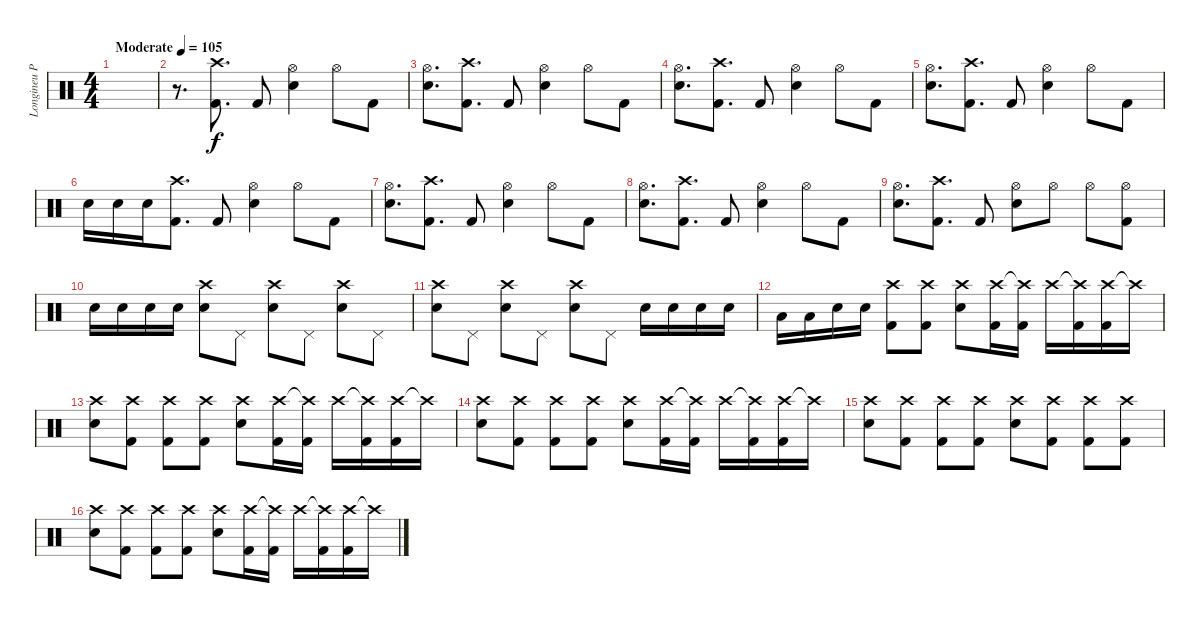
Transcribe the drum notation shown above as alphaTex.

\track ("Longineu Parsons III" "Longineu P") {instrument percussion}
\staff {score}
\articulation defaults
\ts (4 4)
\tempo (105 "Moderate")
\clef neutral
\ks c
|
r.8{d} ("Crash high (hit)" "Kick (hit) 2").8{d} "Kick (hit) 2".8 ("Hi-Hat (open)" "Electric Snare (hit)").4 "Hi-Hat (open)".8 "Kick (hit) 2".8 |
("Hi-Hat (open)" "Electric Snare (hit)").8{d} ("Crash high (hit)" "Kick (hit) 2").8{d} "Kick (hit) 2".8 ("Hi-Hat (open)" "Electric Snare (hit)").4 "Hi-Hat (open)".8 "Kick (hit) 2".8 |
("Hi-Hat (open)" "Electric Snare (hit)").8{d} ("Crash high (hit)" "Kick (hit) 2").8{d} "Kick (hit) 2".8 ("Hi-Hat (open)" "Electric Snare (hit)").4 "Hi-Hat (open)".8 "Kick (hit) 2".8 |
("Hi-Hat (open)" "Electric Snare (hit)").8{d} ("Crash high (hit)" "Kick (hit) 2").8{d} "Kick (hit) 2".8 ("Hi-Hat (open)" "Electric Snare (hit)").4 "Hi-Hat (open)".8 "Kick (hit) 2".8 |
"Electric Snare (hit)".16 "Electric Snare (hit)".16 "Electric Snare (hit)".16 ("Crash high (hit)" "Kick (hit) 2").8{d} "Kick (hit) 2".8 ("Hi-Hat (open)" "Electric Snare (hit)").4 "Hi-Hat (open)".8 "Kick (hit) 2".8 |
("Hi-Hat (open)" "Electric Snare (hit)").8{d} ("Crash high (hit)" "Kick (hit) 2").8{d} "Kick (hit) 2".8 ("Hi-Hat (open)" "Electric Snare (hit)").4 "Hi-Hat (open)".8 "Kick (hit) 2".8 |
("Hi-Hat (open)" "Electric Snare (hit)").8{d} ("Crash high (hit)" "Kick (hit) 2").8{d} "Kick (hit) 2".8 ("Hi-Hat (open)" "Electric Snare (hit)").4 "Hi-Hat (open)".8 "Kick (hit) 2".8 |
("Hi-Hat (open)" "Electric Snare (hit)").8{d} ("Crash high (hit)" "Kick (hit) 2").8{d} "Kick (hit) 2".8 ("Hi-Hat (open)" "Electric Snare (hit)").8 "Hi-Hat (open)".8 "Hi-Hat (open)".8 ("Hi-Hat (open)" "Kick (hit) 2").8 |
"Electric Snare (hit)".16 "Electric Snare (hit)".16 "Electric Snare (hit)".16 "Electric Snare (hit)".16 ("Crash high (hit)" "Electric Snare (hit)").8 "Pedal Hi-Hat (hit)".8 ("Crash high (hit)" "Electric Snare (hit)").8 "Pedal Hi-Hat (hit)".8 ("Crash high (hit)" "Electric Snare (hit)").8 "Pedal Hi-Hat (hit)".8 |
("Crash high (hit)" "Electric Snare (hit)").8 "Pedal Hi-Hat (hit)".8 ("Crash high (hit)" "Electric Snare (hit)").8 "Pedal Hi-Hat (hit)".8 ("Crash high (hit)" "Electric Snare (hit)").8 "Pedal Hi-Hat (hit)".8 "Electric Snare (hit)".16 "Electric Snare (hit)".16 "Electric Snare (hit)".16 "Electric Snare (hit)".16 |
"Low Tom (hit)".16 "Low Tom (hit)".16 "Electric Snare (hit)".16 "Electric Snare (hit)".16 ("Crash high (hit)" "Kick (hit) 2").8 ("Crash high (hit)" "Kick (hit) 2").8 ("Crash high (hit)" "Electric Snare (hit)").8 ("Crash high (hit)" "Kick (hit) 2").16 ("Crash high (hit)"{t} "Kick (hit) 2").16 "Crash high (hit)".16 ("Crash high (hit)"{t} "Kick (hit) 2").16 ("Crash high (hit)" "Kick (hit) 2").16 "Crash high (hit)"{t}.16 |
("Crash high (hit)" "Electric Snare (hit)").8 ("Crash high (hit)" "Kick (hit) 2").8 ("Crash high (hit)" "Kick (hit) 2").8 ("Crash high (hit)" "Kick (hit) 2").8 ("Crash high (hit)" "Electric Snare (hit)").8 ("Crash high (hit)" "Kick (hit) 2").16 ("Crash high (hit)"{t} "Kick (hit) 2").16 "Crash high (hit)".16 ("Crash high (hit)"{t} "Kick (hit) 2").16 ("Crash high (hit)" "Kick (hit) 2").16 "Crash high (hit)"{t}.16 |
("Crash high (hit)" "Electric Snare (hit)").8 ("Crash high (hit)" "Kick (hit) 2").8 ("Crash high (hit)" "Kick (hit) 2").8 ("Crash high (hit)" "Kick (hit) 2").8 ("Crash high (hit)" "Electric Snare (hit)").8 ("Crash high (hit)" "Kick (hit) 2").16 ("Crash high (hit)"{t} "Kick (hit) 2").16 "Crash high (hit)".16 ("Crash high (hit)"{t} "Kick (hit) 2").16 ("Crash high (hit)" "Kick (hit) 2").16 "Crash high (hit)"{t}.16 |
("Crash high (hit)" "Electric Snare (hit)").8 ("Crash high (hit)" "Kick (hit) 2").8 ("Crash high (hit)" "Kick (hit) 2").8 ("Crash high (hit)" "Kick (hit) 2").8 ("Crash high (hit)" "Electric Snare (hit)").8 ("Crash high (hit)" "Kick (hit) 2").8 ("Crash high (hit)" "Kick (hit) 2").8 ("Crash high (hit)" "Kick (hit) 2").8 |
("Crash high (hit)" "Electric Snare (hit)").8 ("Crash high (hit)" "Kick (hit) 2").8 ("Crash high (hit)" "Kick (hit) 2").8 ("Crash high (hit)" "Kick (hit) 2").8 ("Crash high (hit)" "Electric Snare (hit)").8 ("Crash high (hit)" "Kick (hit) 2").16 ("Crash high (hit)"{t} "Kick (hit) 2").16 "Crash high (hit)".16 ("Crash high (hit)"{t} "Kick (hit) 2").16 ("Crash high (hit)" "Kick (hit) 2").16 "Crash high (hit)"{t}.16
